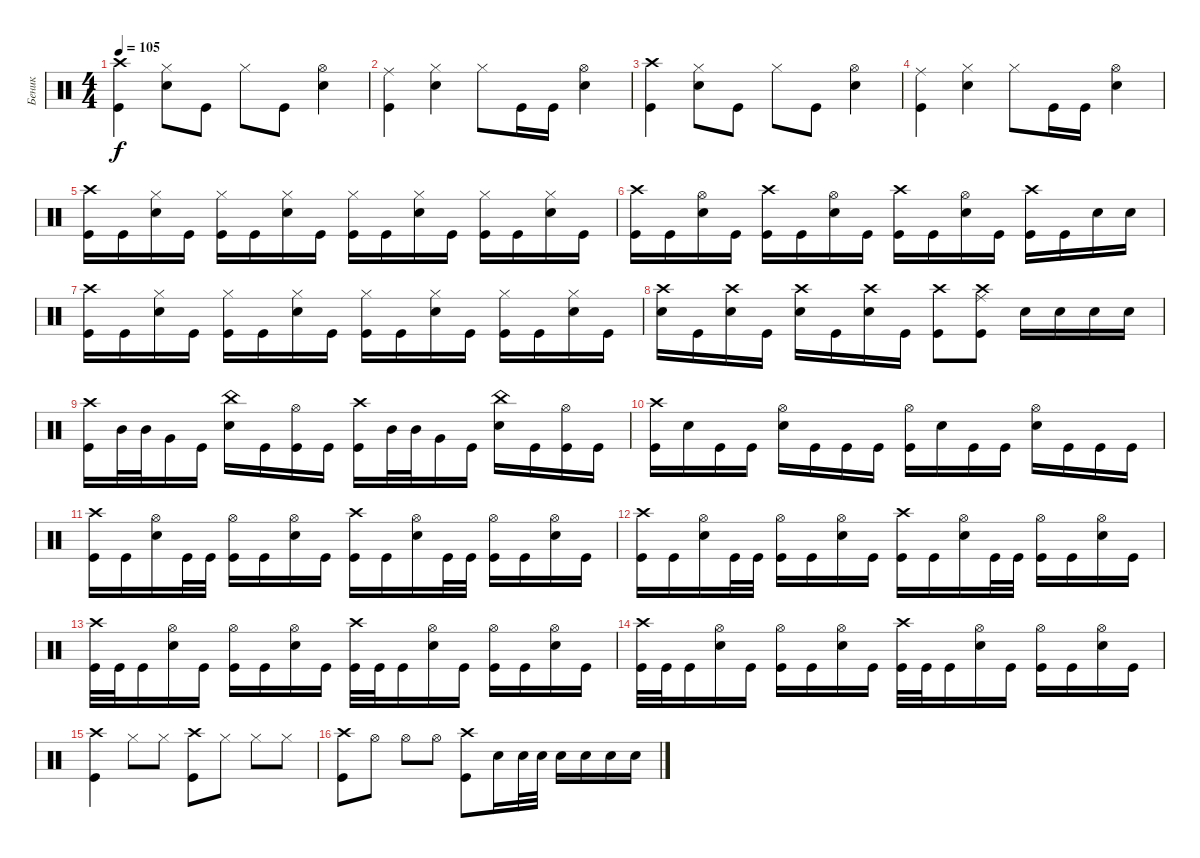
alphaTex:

\track ("Беник" "Беник") {instrument percussion}
\staff {score}
\articulation defaults
\ts (4 4)
\tempo 105
\clef neutral
\ks c
("Kick (hit)" "Crash high (hit)").4{dy f} ("Hi-Hat (closed)" "Snare (hit) 2").8 "Kick (hit)".8 "Hi-Hat (closed)".8 "Kick (hit)".8 ("Hi-Hat (open)" "Snare (hit) 2").4 |
("Ride (middle)" "Kick (hit)").4 ("Hi-Hat (closed)" "Snare (hit) 2").4 "Hi-Hat (closed)".8 "Kick (hit)".16 "Kick (hit)".16 ("Hi-Hat (open)" "Snare (hit) 2").4 |
("Kick (hit)" "Crash high (hit)").4 ("Hi-Hat (closed)" "Snare (hit) 2").8 "Kick (hit)".8 "Hi-Hat (closed)".8 "Kick (hit)".8 ("Hi-Hat (open)" "Snare (hit) 2").4 |
("Ride (middle)" "Kick (hit)").4 ("Hi-Hat (closed)" "Snare (hit) 2").4 "Hi-Hat (closed)".8 "Kick (hit)".16 "Kick (hit)".16 ("Hi-Hat (open)" "Snare (hit) 2").4 |
("Crash high (hit)" "Kick (hit)").16 "Kick (hit)".16 ("Snare (hit) 2" "Hi-Hat (closed)").16 "Kick (hit)".16 ("Kick (hit)" "Hi-Hat (closed)").16 "Kick (hit)".16 ("Snare (hit) 2" "Hi-Hat (closed)").16 "Kick (hit)".16 ("Kick (hit)" "Hi-Hat (closed)").16 "Kick (hit)".16 ("Snare (hit) 2" "Hi-Hat (closed)").16 "Kick (hit)".16 ("Kick (hit)" "Hi-Hat (closed)").16 "Kick (hit)".16 ("Snare (hit) 2" "Hi-Hat (closed)").16 "Kick (hit)".16 |
("Crash high (hit)" "Kick (hit)").16 "Kick (hit)".16 ("Snare (hit) 2" "Hi-Hat (open)").16 "Kick (hit)".16 ("Kick (hit)" "Crash high (hit)").16 "Kick (hit)".16 ("Snare (hit) 2" "Hi-Hat (open)").16 "Kick (hit)".16 ("Kick (hit)" "Crash high (hit)").16 "Kick (hit)".16 ("Snare (hit) 2" "Hi-Hat (open)").16 "Kick (hit)".16 ("Kick (hit)" "Crash high (hit)").16 "Kick (hit)".16 "Snare (hit) 2".16 "Snare (hit) 2".16 |
("Crash high (hit)" "Kick (hit)").16 "Kick (hit)".16 ("Snare (hit) 2" "Hi-Hat (closed)").16 "Kick (hit)".16 ("Kick (hit)" "Hi-Hat (closed)").16 "Kick (hit)".16 ("Snare (hit) 2" "Hi-Hat (closed)").16 "Kick (hit)".16 ("Kick (hit)" "Hi-Hat (closed)").16 "Kick (hit)".16 ("Snare (hit) 2" "Hi-Hat (closed)").16 "Kick (hit)".16 ("Kick (hit)" "Hi-Hat (closed)").16 "Kick (hit)".16 ("Snare (hit) 2" "Hi-Hat (closed)").16 "Kick (hit)".16 |
("Snare (hit) 2" "Crash high (hit)").16 "Kick (hit)".16 ("Snare (hit) 2" "Crash high (hit)").16 "Kick (hit)".16 ("Snare (hit) 2" "Crash high (hit)").16 "Kick (hit)".16 ("Snare (hit) 2" "Crash high (hit)").16 "Kick (hit)".16 ("Kick (hit)" "Crash high (hit)").8 ("Crash high (hit)" "Ride (middle)" "Kick (hit)").8 "Snare (hit) 2".16 "Snare (hit) 2".16 "Snare (hit) 2".16 "Snare (hit) 2".16 |
("Kick (hit)" "Crash high (hit)").16 "Mid Tom (hit)".32 "Mid Tom (hit)".32 "Very Low Tom (hit)".16 "Kick (hit)".16 ("Snare (hit) 2" "China (hit)").16 "Kick (hit)".16 ("Kick (hit)" "Hi-Hat (open)").16 "Kick (hit)".16 ("Kick (hit)" "Crash high (hit)").16 "Mid Tom (hit)".32 "Mid Tom (hit)".32 "Very Low Tom (hit)".16 "Kick (hit)".16 ("Snare (hit) 2" "China (hit)").16 "Kick (hit)".16 ("Kick (hit)" "Hi-Hat (open)").16 "Kick (hit)".16 |
("Kick (hit)" "Crash high (hit)").16 "Snare (hit) 2".16 "Kick (hit)".16 "Kick (hit)".16 ("Snare (hit) 2" "Hi-Hat (open)").16 "Kick (hit)".16 "Kick (hit)".16 "Kick (hit)".16 ("Kick (hit)" "Hi-Hat (open)").16 "Snare (hit) 2".16 "Kick (hit)".16 "Kick (hit)".16 ("Snare (hit) 2" "Hi-Hat (open)").16 "Kick (hit)".16 "Kick (hit)".16 "Kick (hit)".16 |
("Kick (hit)" "Crash high (hit)").16 "Kick (hit)".16 ("Snare (hit) 2" "Hi-Hat (open)").16 "Kick (hit)".32 "Kick (hit)".32 ("Kick (hit)" "Hi-Hat (open)").16 "Kick (hit)".16 ("Snare (hit) 2" "Hi-Hat (open)").16 "Kick (hit)".16 ("Kick (hit)" "Crash high (hit)").16 "Kick (hit)".16 ("Snare (hit) 2" "Hi-Hat (open)").16 "Kick (hit)".32 "Kick (hit)".32 ("Kick (hit)" "Hi-Hat (open)").16 "Kick (hit)".16 ("Snare (hit) 2" "Hi-Hat (open)").16 "Kick (hit)".16 |
("Kick (hit)" "Crash high (hit)").16 "Kick (hit)".16 ("Snare (hit) 2" "Hi-Hat (open)").16 "Kick (hit)".32 "Kick (hit)".32 ("Kick (hit)" "Hi-Hat (open)").16 "Kick (hit)".16 ("Snare (hit) 2" "Hi-Hat (open)").16 "Kick (hit)".16 ("Kick (hit)" "Crash high (hit)").16 "Kick (hit)".16 ("Snare (hit) 2" "Hi-Hat (open)").16 "Kick (hit)".32 "Kick (hit)".32 ("Kick (hit)" "Hi-Hat (open)").16 "Kick (hit)".16 ("Snare (hit) 2" "Hi-Hat (open)").16 "Kick (hit)".16 |
("Kick (hit)" "Crash high (hit)").32 "Kick (hit)".32 "Kick (hit)".16 ("Snare (hit) 2" "Hi-Hat (open)").16 "Kick (hit)".16 ("Kick (hit)" "Hi-Hat (open)").16 "Kick (hit)".16 ("Snare (hit) 2" "Hi-Hat (open)").16 "Kick (hit)".16 ("Kick (hit)" "Crash high (hit)").32 "Kick (hit)".32 "Kick (hit)".16 ("Snare (hit) 2" "Hi-Hat (open)").16 "Kick (hit)".16 ("Kick (hit)" "Hi-Hat (open)").16 "Kick (hit)".16 ("Snare (hit) 2" "Hi-Hat (open)").16 "Kick (hit)".16 |
("Kick (hit)" "Crash high (hit)").32 "Kick (hit)".32 "Kick (hit)".16 ("Snare (hit) 2" "Hi-Hat (open)").16 "Kick (hit)".16 ("Kick (hit)" "Hi-Hat (open)").16 "Kick (hit)".16 ("Snare (hit) 2" "Hi-Hat (open)").16 "Kick (hit)".16 ("Kick (hit)" "Crash high (hit)").32 "Kick (hit)".32 "Kick (hit)".16 ("Snare (hit) 2" "Hi-Hat (open)").16 "Kick (hit)".16 ("Kick (hit)" "Hi-Hat (open)").16 "Kick (hit)".16 ("Snare (hit) 2" "Hi-Hat (open)").16 "Kick (hit)".16 |
("Kick (hit)" "Crash high (hit)").4 "Hi-Hat (closed)".8 "Hi-Hat (closed)".8 ("Crash high (hit)" "Kick (hit)").8 "Hi-Hat (closed)".8 "Hi-Hat (closed)".8 "Hi-Hat (closed)".8 |
("Crash high (hit)" "Kick (hit)").8 "Hi-Hat (open)".8 "Hi-Hat (open)".8 "Hi-Hat (open)".8 ("Kick (hit)" "Crash high (hit)").8 "Snare (hit) 2".16 "Snare (hit) 2".32 "Snare (hit) 2".32 "Snare (hit) 2".16 "Snare (hit) 2".16 "Snare (hit) 2".16 "Snare (hit) 2".16
